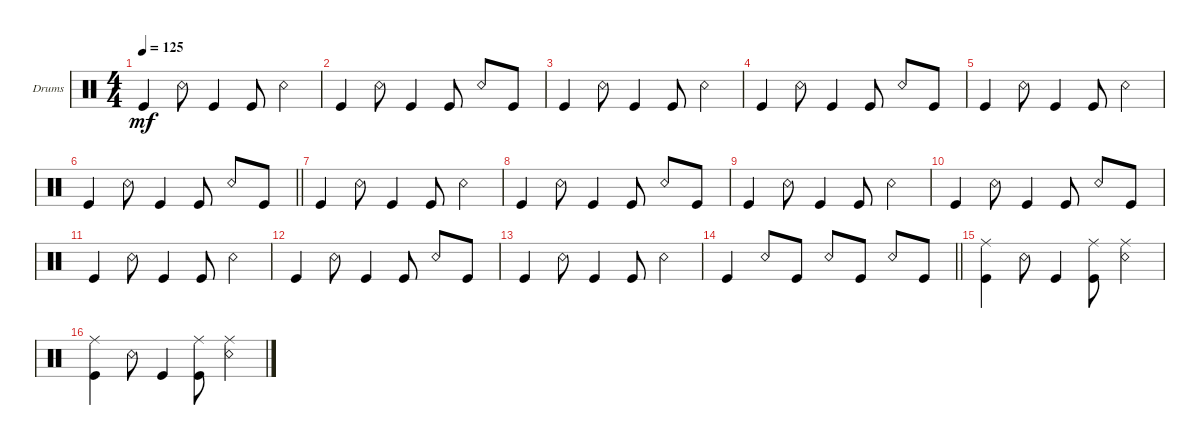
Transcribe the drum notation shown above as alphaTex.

\defaultSystemsLayout 4
\bracketExtendMode groupsimilarinstruments
\firstSystemTrackNameOrientation horizontal
\otherSystemsTrackNameOrientation horizontal
\track ("Drumkit" "Drums") {instrument percussion}
\staff {score}
\articulation defaults
\ts (4 4)
\tempo 125
\clef neutral
\ks c "Kick (hit)".4{dy mf} "Snare (rim shot)".8 "Kick (hit)".4 "Kick (hit)".8 "Snare (rim shot)".4
|
"Kick (hit)".4 "Snare (rim shot)".8 "Kick (hit)".4 "Kick (hit)".8 "Snare (rim shot)".8 "Kick (hit)".8 |
"Kick (hit)".4 "Snare (rim shot)".8 "Kick (hit)".4 "Kick (hit)".8 "Snare (rim shot)".4 |
"Kick (hit)".4 "Snare (rim shot)".8 "Kick (hit)".4 "Kick (hit)".8 "Snare (rim shot)".8 "Kick (hit)".8 |
"Kick (hit)".4 "Snare (rim shot)".8 "Kick (hit)".4 "Kick (hit)".8 "Snare (rim shot)".4 |
\barLineRight lightlight "Kick (hit)".4 "Snare (rim shot)".8 "Kick (hit)".4 "Kick (hit)".8 "Snare (rim shot)".8 "Kick (hit)".8
|
"Kick (hit)".4 "Snare (rim shot)".8 "Kick (hit)".4 "Kick (hit)".8 "Snare (rim shot)".4 |
"Kick (hit)".4 "Snare (rim shot)".8 "Kick (hit)".4 "Kick (hit)".8 "Snare (rim shot)".8 "Kick (hit)".8 |
"Kick (hit)".4 "Snare (rim shot)".8 "Kick (hit)".4 "Kick (hit)".8 "Snare (rim shot)".4 |
"Kick (hit)".4 "Snare (rim shot)".8 "Kick (hit)".4 "Kick (hit)".8 "Snare (rim shot)".8 "Kick (hit)".8 |
"Kick (hit)".4 "Snare (rim shot)".8 "Kick (hit)".4 "Kick (hit)".8 "Snare (rim shot)".4 |
"Kick (hit)".4 "Snare (rim shot)".8 "Kick (hit)".4 "Kick (hit)".8 "Snare (rim shot)".8 "Kick (hit)".8 |
"Kick (hit)".4 "Snare (rim shot)".8 "Kick (hit)".4 "Kick (hit)".8 "Snare (rim shot)".4 |
\barLineRight lightlight "Kick (hit)".4 "Snare (rim shot)".8 "Kick (hit)".8 "Snare (rim shot)".8 "Kick (hit)".8 "Snare (rim shot)".8 "Kick (hit)".8
|
("Kick (hit)" "Ride (middle)").4 "Snare (rim shot)".8 "Kick (hit)".4 ("Kick (hit)" "Ride (middle)").8 ("Snare (rim shot)" "Ride (middle)").4 |
("Kick (hit)" "Ride (middle)").4 "Snare (rim shot)".8 "Kick (hit)".4 ("Kick (hit)" "Ride (middle)").8 ("Snare (rim shot)" "Ride (middle)").4
